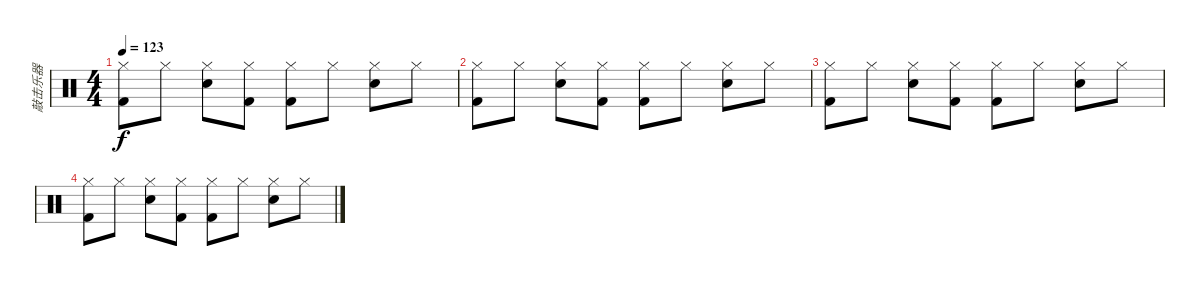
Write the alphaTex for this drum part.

\track ("敲击乐器" "敲击乐器") {instrument percussion}
\staff {score}
\articulation defaults
\ts (4 4)
\tempo 123
\clef neutral
\ks c
("Hi-Hat (closed)" "Kick (hit) 2").8{dy f} "Hi-Hat (closed)".8 ("Hi-Hat (closed)" "Electric Snare (hit)").8 ("Hi-Hat (closed)" "Kick (hit) 2").8 ("Hi-Hat (closed)" "Kick (hit) 2").8 "Hi-Hat (closed)".8 ("Hi-Hat (closed)" "Electric Snare (hit)").8 "Hi-Hat (closed)".8 |
("Hi-Hat (closed)" "Kick (hit) 2").8 "Hi-Hat (closed)".8 ("Hi-Hat (closed)" "Electric Snare (hit)").8 ("Hi-Hat (closed)" "Kick (hit) 2").8 ("Hi-Hat (closed)" "Kick (hit) 2").8 "Hi-Hat (closed)".8 ("Hi-Hat (closed)" "Electric Snare (hit)").8 "Hi-Hat (closed)".8 |
("Hi-Hat (closed)" "Kick (hit) 2").8 "Hi-Hat (closed)".8 ("Hi-Hat (closed)" "Electric Snare (hit)").8 ("Hi-Hat (closed)" "Kick (hit) 2").8 ("Hi-Hat (closed)" "Kick (hit) 2").8 "Hi-Hat (closed)".8 ("Hi-Hat (closed)" "Electric Snare (hit)").8 "Hi-Hat (closed)".8 |
("Hi-Hat (closed)" "Kick (hit) 2").8 "Hi-Hat (closed)".8 ("Hi-Hat (closed)" "Electric Snare (hit)").8 ("Hi-Hat (closed)" "Kick (hit) 2").8 ("Hi-Hat (closed)" "Kick (hit) 2").8 "Hi-Hat (closed)".8 ("Hi-Hat (closed)" "Electric Snare (hit)").8 "Hi-Hat (closed)".8
